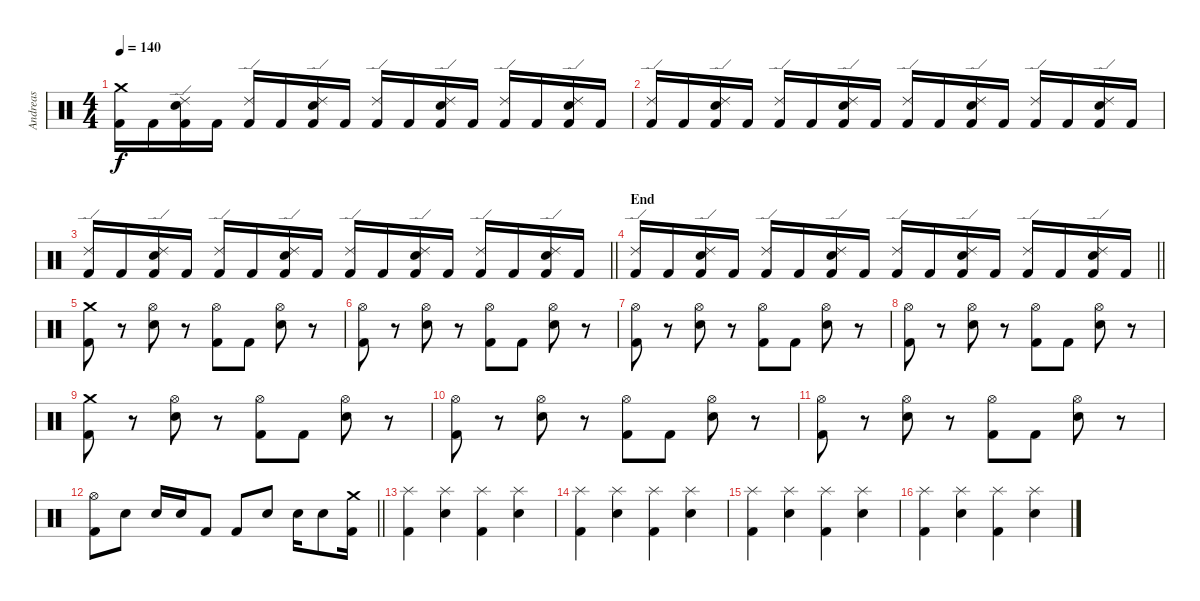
\track ("Andreas" "Andreas") {instrument percussion}
\staff {score}
\articulation defaults
\ts (4 4)
\tempo 140
\clef neutral
\ks c
("Crash medium (hit)" "Kick (hit) 2").16{dy f} "Kick (hit) 2".16 ("Ride (edge) 2" "Electric Snare (hit)" "Kick (hit) 2").16 "Kick (hit) 2".16 ("Ride (edge) 2" "Kick (hit) 2").16 "Kick (hit) 2".16 ("Ride (edge) 2" "Electric Snare (hit)" "Kick (hit) 2").16 "Kick (hit) 2".16 ("Ride (edge) 2" "Kick (hit) 2").16 "Kick (hit) 2".16 ("Ride (edge) 2" "Electric Snare (hit)" "Kick (hit) 2").16 "Kick (hit) 2".16 ("Ride (edge) 2" "Kick (hit) 2").16 "Kick (hit) 2".16 ("Ride (edge) 2" "Electric Snare (hit)" "Kick (hit) 2").16 "Kick (hit) 2".16 |
("Ride (edge) 2" "Kick (hit) 2").16 "Kick (hit) 2".16 ("Ride (edge) 2" "Electric Snare (hit)" "Kick (hit) 2").16 "Kick (hit) 2".16 ("Ride (edge) 2" "Kick (hit) 2").16 "Kick (hit) 2".16 ("Ride (edge) 2" "Electric Snare (hit)" "Kick (hit) 2").16 "Kick (hit) 2".16 ("Ride (edge) 2" "Kick (hit) 2").16 "Kick (hit) 2".16 ("Ride (edge) 2" "Electric Snare (hit)" "Kick (hit) 2").16 "Kick (hit) 2".16 ("Ride (edge) 2" "Kick (hit) 2").16 "Kick (hit) 2".16 ("Ride (edge) 2" "Electric Snare (hit)" "Kick (hit) 2").16 "Kick (hit) 2".16 |
\barLineRight lightlight
("Ride (edge) 2" "Kick (hit) 2").16 "Kick (hit) 2".16 ("Ride (edge) 2" "Electric Snare (hit)" "Kick (hit) 2").16 "Kick (hit) 2".16 ("Ride (edge) 2" "Kick (hit) 2").16 "Kick (hit) 2".16 ("Ride (edge) 2" "Electric Snare (hit)" "Kick (hit) 2").16 "Kick (hit) 2".16 ("Ride (edge) 2" "Kick (hit) 2").16 "Kick (hit) 2".16 ("Ride (edge) 2" "Electric Snare (hit)" "Kick (hit) 2").16 "Kick (hit) 2".16 ("Ride (edge) 2" "Kick (hit) 2").16 "Kick (hit) 2".16 ("Ride (edge) 2" "Electric Snare (hit)" "Kick (hit) 2").16 "Kick (hit) 2".16 |
\section ("" "End")
\barLineRight lightlight
("Ride (edge) 2" "Kick (hit) 2").16 "Kick (hit) 2".16 ("Ride (edge) 2" "Electric Snare (hit)" "Kick (hit) 2").16 "Kick (hit) 2".16 ("Ride (edge) 2" "Kick (hit) 2").16 "Kick (hit) 2".16 ("Ride (edge) 2" "Electric Snare (hit)" "Kick (hit) 2").16 "Kick (hit) 2".16 ("Ride (edge) 2" "Kick (hit) 2").16 "Kick (hit) 2".16 ("Ride (edge) 2" "Electric Snare (hit)" "Kick (hit) 2").16 "Kick (hit) 2".16 ("Ride (edge) 2" "Kick (hit) 2").16 "Kick (hit) 2".16 ("Ride (edge) 2" "Electric Snare (hit)" "Kick (hit) 2").16 "Kick (hit) 2".16 |
("Crash medium (hit)" "Kick (hit) 2").8 r.8 ("Hi-Hat (open)" "Electric Snare (hit)").8 r.8 ("Hi-Hat (open)" "Kick (hit) 2").8 "Kick (hit) 2".8 ("Hi-Hat (open)" "Electric Snare (hit)").8 r.8 |
("Hi-Hat (open)" "Kick (hit) 2").8 r.8 ("Hi-Hat (open)" "Electric Snare (hit)").8 r.8 ("Hi-Hat (open)" "Kick (hit) 2").8 "Kick (hit) 2".8 ("Hi-Hat (open)" "Electric Snare (hit)").8 r.8 |
("Hi-Hat (open)" "Kick (hit) 2").8 r.8 ("Hi-Hat (open)" "Electric Snare (hit)").8 r.8 ("Hi-Hat (open)" "Kick (hit) 2").8 "Kick (hit) 2".8 ("Hi-Hat (open)" "Electric Snare (hit)").8 r.8 |
("Hi-Hat (open)" "Kick (hit) 2").8 r.8 ("Hi-Hat (open)" "Electric Snare (hit)").8 r.8 ("Hi-Hat (open)" "Kick (hit) 2").8 "Kick (hit) 2".8 ("Hi-Hat (open)" "Electric Snare (hit)").8 r.8 |
("Crash medium (hit)" "Kick (hit) 2").8 r.8 ("Hi-Hat (open)" "Electric Snare (hit)").8 r.8 ("Hi-Hat (open)" "Kick (hit) 2").8 "Kick (hit) 2".8 ("Hi-Hat (open)" "Electric Snare (hit)").8 r.8 |
("Hi-Hat (open)" "Kick (hit) 2").8 r.8 ("Hi-Hat (open)" "Electric Snare (hit)").8 r.8 ("Hi-Hat (open)" "Kick (hit) 2").8 "Kick (hit) 2".8 ("Hi-Hat (open)" "Electric Snare (hit)").8 r.8 |
("Hi-Hat (open)" "Kick (hit) 2").8 r.8 ("Hi-Hat (open)" "Electric Snare (hit)").8 r.8 ("Hi-Hat (open)" "Kick (hit) 2").8 "Kick (hit) 2".8 ("Hi-Hat (open)" "Electric Snare (hit)").8 r.8 |
\barLineRight lightlight
("Hi-Hat (open)" "Kick (hit) 2").8 "Electric Snare (hit)".8 "Electric Snare (hit)".16 "Electric Snare (hit)".16 "Kick (hit) 2".8 "Kick (hit) 2".8 "Electric Snare (hit)".8 "Electric Snare (hit)".16 "Electric Snare (hit)".8 ("Crash medium (hit)" "Kick (hit) 2").16 |
\section ("" "")
("Splash (hit)" "Kick (hit) 2").4 ("Splash (hit)" "Electric Snare (hit)").4 ("Splash (hit)" "Kick (hit) 2").4 ("Splash (hit)" "Electric Snare (hit)").4 |
("Splash (hit)" "Kick (hit) 2").4 ("Splash (hit)" "Electric Snare (hit)").4 ("Splash (hit)" "Kick (hit) 2").4 ("Splash (hit)" "Electric Snare (hit)").4 |
("Splash (hit)" "Kick (hit) 2").4 ("Splash (hit)" "Electric Snare (hit)").4 ("Splash (hit)" "Kick (hit) 2").4 ("Splash (hit)" "Electric Snare (hit)").4 |
("Splash (hit)" "Kick (hit) 2").4 ("Splash (hit)" "Electric Snare (hit)").4 ("Splash (hit)" "Kick (hit) 2").4 ("Splash (hit)" "Electric Snare (hit)").4
